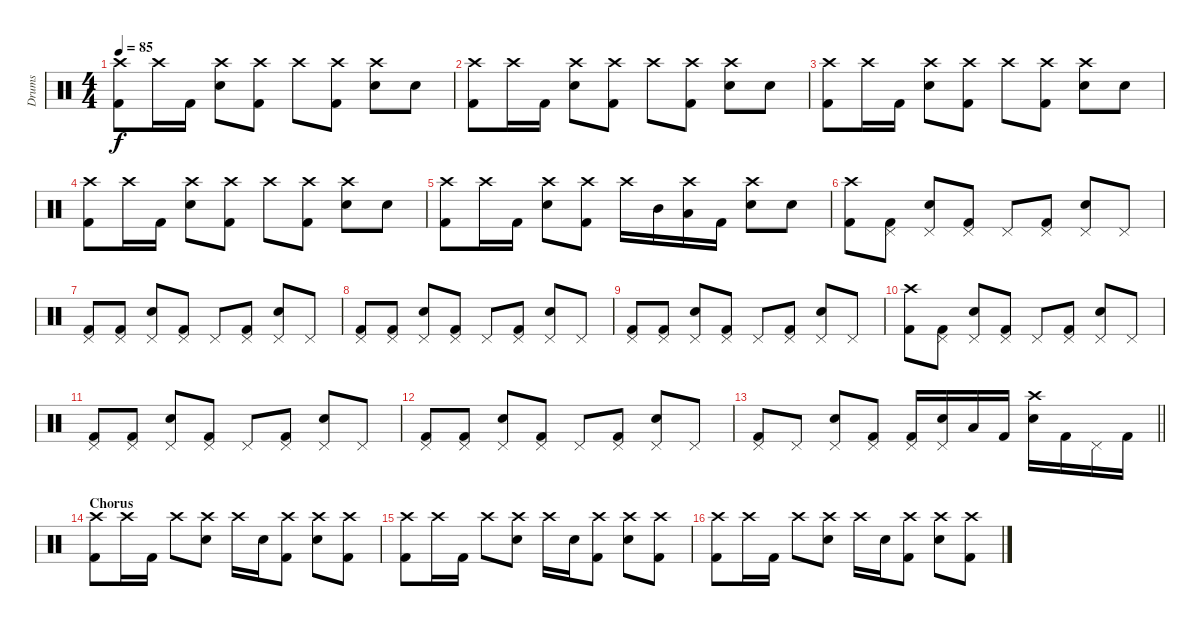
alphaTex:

\track ("Drums" "Drums") {instrument percussion}
\staff {score}
\articulation defaults
\ts (4 4)
\tempo 85
\clef neutral
\ks c
("Crash high (hit)" "Kick (hit) 2").8{dy f} "Crash high (hit)".16 "Kick (hit) 2".16 ("Crash high (hit)" "Electric Snare (hit)").8 ("Crash high (hit)" "Kick (hit) 2").8 "Crash high (hit)".8 ("Crash high (hit)" "Kick (hit) 2").8 ("Crash high (hit)" "Electric Snare (hit)").8 "Electric Snare (hit)".8 |
("Crash high (hit)" "Kick (hit) 2").8 "Crash high (hit)".16 "Kick (hit) 2".16 ("Crash high (hit)" "Electric Snare (hit)").8 ("Crash high (hit)" "Kick (hit) 2").8 "Crash high (hit)".8 ("Crash high (hit)" "Kick (hit) 2").8 ("Crash high (hit)" "Electric Snare (hit)").8 "Electric Snare (hit)".8 |
("Crash high (hit)" "Kick (hit) 2").8 "Crash high (hit)".16 "Kick (hit) 2".16 ("Crash high (hit)" "Electric Snare (hit)").8 ("Crash high (hit)" "Kick (hit) 2").8 "Crash high (hit)".8 ("Crash high (hit)" "Kick (hit) 2").8 ("Crash high (hit)" "Electric Snare (hit)").8 "Electric Snare (hit)".8 |
("Crash high (hit)" "Kick (hit) 2").8 "Crash high (hit)".16 "Kick (hit) 2".16 ("Crash high (hit)" "Electric Snare (hit)").8 ("Crash high (hit)" "Kick (hit) 2").8 "Crash high (hit)".8 ("Crash high (hit)" "Kick (hit) 2").8 ("Crash high (hit)" "Electric Snare (hit)").8 "Electric Snare (hit)".8 |
("Crash high (hit)" "Kick (hit) 2").8 "Crash high (hit)".16 "Kick (hit) 2".16 ("Crash high (hit)" "Electric Snare (hit)").8 ("Crash high (hit)" "Kick (hit) 2").8 "Crash high (hit)".16 "Mid Tom (hit)".16 ("Crash high (hit)" "Low Tom (hit)").16 "Kick (hit) 2".16 ("Crash high (hit)" "Electric Snare (hit)").8 "Electric Snare (hit)".8 |
("Crash high (hit)" "Kick (hit) 2").8 ("Pedal Hi-Hat (hit)" "Kick (hit) 2").8 ("Pedal Hi-Hat (hit)" "Electric Snare (hit)").8 ("Pedal Hi-Hat (hit)" "Kick (hit) 2").8 "Pedal Hi-Hat (hit)".8 ("Pedal Hi-Hat (hit)" "Kick (hit) 2").8 ("Pedal Hi-Hat (hit)" "Electric Snare (hit)").8 "Pedal Hi-Hat (hit)".8 |
("Pedal Hi-Hat (hit)" "Kick (hit) 2").8 ("Pedal Hi-Hat (hit)" "Kick (hit) 2").8 ("Pedal Hi-Hat (hit)" "Electric Snare (hit)").8 ("Pedal Hi-Hat (hit)" "Kick (hit) 2").8 "Pedal Hi-Hat (hit)".8 ("Pedal Hi-Hat (hit)" "Kick (hit) 2").8 ("Pedal Hi-Hat (hit)" "Electric Snare (hit)").8 "Pedal Hi-Hat (hit)".8 |
("Pedal Hi-Hat (hit)" "Kick (hit) 2").8 ("Pedal Hi-Hat (hit)" "Kick (hit) 2").8 ("Pedal Hi-Hat (hit)" "Electric Snare (hit)").8 ("Pedal Hi-Hat (hit)" "Kick (hit) 2").8 "Pedal Hi-Hat (hit)".8 ("Pedal Hi-Hat (hit)" "Kick (hit) 2").8 ("Pedal Hi-Hat (hit)" "Electric Snare (hit)").8 "Pedal Hi-Hat (hit)".8 |
("Pedal Hi-Hat (hit)" "Kick (hit) 2").8 ("Pedal Hi-Hat (hit)" "Kick (hit) 2").8 ("Pedal Hi-Hat (hit)" "Electric Snare (hit)").8 ("Pedal Hi-Hat (hit)" "Kick (hit) 2").8 "Pedal Hi-Hat (hit)".8 ("Pedal Hi-Hat (hit)" "Kick (hit) 2").8 ("Pedal Hi-Hat (hit)" "Electric Snare (hit)").8 "Pedal Hi-Hat (hit)".8 |
("Crash high (hit)" "Kick (hit) 2").8 ("Pedal Hi-Hat (hit)" "Kick (hit) 2").8 ("Pedal Hi-Hat (hit)" "Electric Snare (hit)").8 ("Pedal Hi-Hat (hit)" "Kick (hit) 2").8 "Pedal Hi-Hat (hit)".8 ("Pedal Hi-Hat (hit)" "Kick (hit) 2").8 ("Pedal Hi-Hat (hit)" "Electric Snare (hit)").8 "Pedal Hi-Hat (hit)".8 |
("Pedal Hi-Hat (hit)" "Kick (hit) 2").8 ("Pedal Hi-Hat (hit)" "Kick (hit) 2").8 ("Pedal Hi-Hat (hit)" "Electric Snare (hit)").8 ("Pedal Hi-Hat (hit)" "Kick (hit) 2").8 "Pedal Hi-Hat (hit)".8 ("Pedal Hi-Hat (hit)" "Kick (hit) 2").8 ("Pedal Hi-Hat (hit)" "Electric Snare (hit)").8 "Pedal Hi-Hat (hit)".8 |
("Pedal Hi-Hat (hit)" "Kick (hit) 2").8 ("Pedal Hi-Hat (hit)" "Kick (hit) 2").8 ("Pedal Hi-Hat (hit)" "Electric Snare (hit)").8 ("Pedal Hi-Hat (hit)" "Kick (hit) 2").8 "Pedal Hi-Hat (hit)".8 ("Pedal Hi-Hat (hit)" "Kick (hit) 2").8 ("Pedal Hi-Hat (hit)" "Electric Snare (hit)").8 "Pedal Hi-Hat (hit)".8 |
\barLineRight lightlight
("Pedal Hi-Hat (hit)" "Kick (hit) 2").8 "Pedal Hi-Hat (hit)".8 ("Pedal Hi-Hat (hit)" "Electric Snare (hit)").8 ("Pedal Hi-Hat (hit)" "Kick (hit) 2").8 ("Pedal Hi-Hat (hit)" "Kick (hit) 2").16 ("Pedal Hi-Hat (hit)" "Electric Snare (hit)").16 "Low Tom (hit)".16 "Kick (hit) 2".16 ("Crash high (hit)" "Electric Snare (hit)").16 "Kick (hit) 2".16 "Pedal Hi-Hat (hit)".16 "Kick (hit) 2".16 |
\section ("" "Chorus")
("Crash high (hit)" "Kick (hit) 2").8 "Crash high (hit)".16 "Kick (hit) 2".16 "Crash high (hit)".8 ("Crash high (hit)" "Electric Snare (hit)").8 "Crash high (hit)".16 "Electric Snare (hit)".16 ("Crash high (hit)" "Kick (hit) 2").8 ("Crash high (hit)" "Electric Snare (hit)").8 ("Crash high (hit)" "Kick (hit) 2").8 |
("Crash high (hit)" "Kick (hit) 2").8 "Crash high (hit)".16 "Kick (hit) 2".16 "Crash high (hit)".8 ("Crash high (hit)" "Electric Snare (hit)").8 "Crash high (hit)".16 "Electric Snare (hit)".16 ("Crash high (hit)" "Kick (hit) 2").8 ("Crash high (hit)" "Electric Snare (hit)").8 ("Crash high (hit)" "Kick (hit) 2").8 |
("Crash high (hit)" "Kick (hit) 2").8 "Crash high (hit)".16 "Kick (hit) 2".16 "Crash high (hit)".8 ("Crash high (hit)" "Electric Snare (hit)").8 "Crash high (hit)".16 "Electric Snare (hit)".16 ("Crash high (hit)" "Kick (hit) 2").8 ("Crash high (hit)" "Electric Snare (hit)").8 ("Crash high (hit)" "Kick (hit) 2").8
